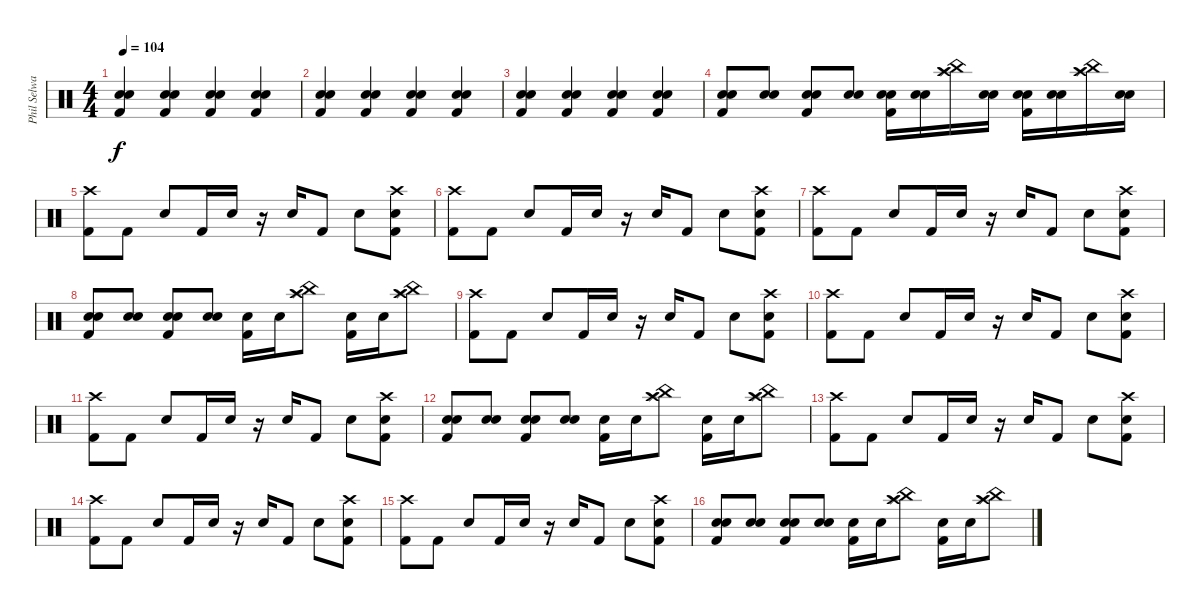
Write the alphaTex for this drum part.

\track ("Phil Selway" "Phil Selwa") {instrument percussion}
\staff {score}
\articulation defaults
\ts (4 4)
\tempo 104
\clef neutral
\ks c
("Kick (hit) 2" "Hand Clap (hit)" "Snare (hit) 2").4{dy f} ("Kick (hit) 2" "Hand Clap (hit)" "Snare (hit) 2").4 ("Kick (hit) 2" "Hand Clap (hit)" "Snare (hit) 2").4 ("Kick (hit) 2" "Hand Clap (hit)" "Snare (hit) 2").4 |
("Kick (hit) 2" "Hand Clap (hit)" "Snare (hit) 2").4 ("Kick (hit) 2" "Hand Clap (hit)" "Snare (hit) 2").4 ("Kick (hit) 2" "Hand Clap (hit)" "Snare (hit) 2").4 ("Kick (hit) 2" "Hand Clap (hit)" "Snare (hit) 2").4 |
("Kick (hit) 2" "Hand Clap (hit)" "Snare (hit) 2").4 ("Kick (hit) 2" "Hand Clap (hit)" "Snare (hit) 2").4 ("Kick (hit) 2" "Hand Clap (hit)" "Snare (hit) 2").4 ("Kick (hit) 2" "Hand Clap (hit)" "Snare (hit) 2").4 |
("Electric Snare (hit)" "Snare (hit) 2" "Kick (hit) 2").8 ("Electric Snare (hit)" "Snare (hit) 2").8 ("Electric Snare (hit)" "Snare (hit) 2" "Kick (hit) 2").8 ("Electric Snare (hit)" "Snare (hit) 2").8 ("Electric Snare (hit)" "Kick (hit) 2" "Snare (hit) 2").16 ("Electric Snare (hit)" "Snare (hit) 2").16 ("Splash (hit)" "China (hit)" "Crash high (hit)").16 ("Electric Snare (hit)" "Snare (hit) 2").16 ("Electric Snare (hit)" "Kick (hit) 2" "Snare (hit) 2").16 ("Electric Snare (hit)" "Snare (hit) 2").16 ("Splash (hit)" "China (hit)" "Crash high (hit)").16 ("Electric Snare (hit)" "Snare (hit) 2").16 |
("Kick (hit) 2" "Crash high (hit)").8 "Kick (hit) 2".8 "Electric Snare (hit)".8 "Kick (hit) 2".16 "Electric Snare (hit)".16 r.16 "Electric Snare (hit)".16 "Kick (hit) 2".8 "Electric Snare (hit)".8 ("Kick (hit) 2" "Crash high (hit)" "Electric Snare (hit)").8 |
("Kick (hit) 2" "Crash high (hit)").8 "Kick (hit) 2".8 "Electric Snare (hit)".8 "Kick (hit) 2".16 "Electric Snare (hit)".16 r.16 "Electric Snare (hit)".16 "Kick (hit) 2".8 "Electric Snare (hit)".8 ("Kick (hit) 2" "Crash high (hit)" "Electric Snare (hit)").8 |
("Kick (hit) 2" "Crash high (hit)").8 "Kick (hit) 2".8 "Electric Snare (hit)".8 "Kick (hit) 2".16 "Electric Snare (hit)".16 r.16 "Electric Snare (hit)".16 "Kick (hit) 2".8 "Electric Snare (hit)".8 ("Kick (hit) 2" "Crash high (hit)" "Electric Snare (hit)").8 |
("Electric Snare (hit)" "Snare (hit) 2" "Kick (hit) 2").8 ("Electric Snare (hit)" "Snare (hit) 2").8 ("Electric Snare (hit)" "Snare (hit) 2" "Kick (hit) 2").8 ("Electric Snare (hit)" "Snare (hit) 2").8 ("Electric Snare (hit)" "Kick (hit) 2").16 "Electric Snare (hit)".16 ("Splash (hit)" "China (hit)" "Crash high (hit)").8 ("Electric Snare (hit)" "Kick (hit) 2").16 "Electric Snare (hit)".16 ("Splash (hit)" "China (hit)" "Crash high (hit)").8 |
("Kick (hit) 2" "Crash high (hit)").8 "Kick (hit) 2".8 "Electric Snare (hit)".8 "Kick (hit) 2".16 "Electric Snare (hit)".16 r.16 "Electric Snare (hit)".16 "Kick (hit) 2".8 "Electric Snare (hit)".8 ("Kick (hit) 2" "Crash high (hit)" "Electric Snare (hit)").8 |
("Kick (hit) 2" "Crash high (hit)").8 "Kick (hit) 2".8 "Electric Snare (hit)".8 "Kick (hit) 2".16 "Electric Snare (hit)".16 r.16 "Electric Snare (hit)".16 "Kick (hit) 2".8 "Electric Snare (hit)".8 ("Kick (hit) 2" "Crash high (hit)" "Electric Snare (hit)").8 |
("Kick (hit) 2" "Crash high (hit)").8 "Kick (hit) 2".8 "Electric Snare (hit)".8 "Kick (hit) 2".16 "Electric Snare (hit)".16 r.16 "Electric Snare (hit)".16 "Kick (hit) 2".8 "Electric Snare (hit)".8 ("Kick (hit) 2" "Crash high (hit)" "Electric Snare (hit)").8 |
("Electric Snare (hit)" "Snare (hit) 2" "Kick (hit) 2").8 ("Electric Snare (hit)" "Snare (hit) 2").8 ("Electric Snare (hit)" "Snare (hit) 2" "Kick (hit) 2").8 ("Electric Snare (hit)" "Snare (hit) 2").8 ("Electric Snare (hit)" "Kick (hit) 2").16 "Electric Snare (hit)".16 ("Splash (hit)" "China (hit)" "Crash high (hit)").8 ("Electric Snare (hit)" "Kick (hit) 2").16 "Electric Snare (hit)".16 ("Splash (hit)" "China (hit)" "Crash high (hit)").8 |
("Kick (hit) 2" "Crash high (hit)").8 "Kick (hit) 2".8 "Electric Snare (hit)".8 "Kick (hit) 2".16 "Electric Snare (hit)".16 r.16 "Electric Snare (hit)".16 "Kick (hit) 2".8 "Electric Snare (hit)".8 ("Kick (hit) 2" "Crash high (hit)" "Electric Snare (hit)").8 |
("Kick (hit) 2" "Crash high (hit)").8 "Kick (hit) 2".8 "Electric Snare (hit)".8 "Kick (hit) 2".16 "Electric Snare (hit)".16 r.16 "Electric Snare (hit)".16 "Kick (hit) 2".8 "Electric Snare (hit)".8 ("Kick (hit) 2" "Crash high (hit)" "Electric Snare (hit)").8 |
("Kick (hit) 2" "Crash high (hit)").8 "Kick (hit) 2".8 "Electric Snare (hit)".8 "Kick (hit) 2".16 "Electric Snare (hit)".16 r.16 "Electric Snare (hit)".16 "Kick (hit) 2".8 "Electric Snare (hit)".8 ("Kick (hit) 2" "Crash high (hit)" "Electric Snare (hit)").8 |
("Electric Snare (hit)" "Snare (hit) 2" "Kick (hit) 2").8 ("Electric Snare (hit)" "Snare (hit) 2").8 ("Electric Snare (hit)" "Snare (hit) 2" "Kick (hit) 2").8 ("Electric Snare (hit)" "Snare (hit) 2").8 ("Electric Snare (hit)" "Kick (hit) 2").16 "Electric Snare (hit)".16 ("Splash (hit)" "China (hit)" "Crash high (hit)").8 ("Electric Snare (hit)" "Kick (hit) 2").16 "Electric Snare (hit)".16 ("Splash (hit)" "China (hit)" "Crash high (hit)").8
